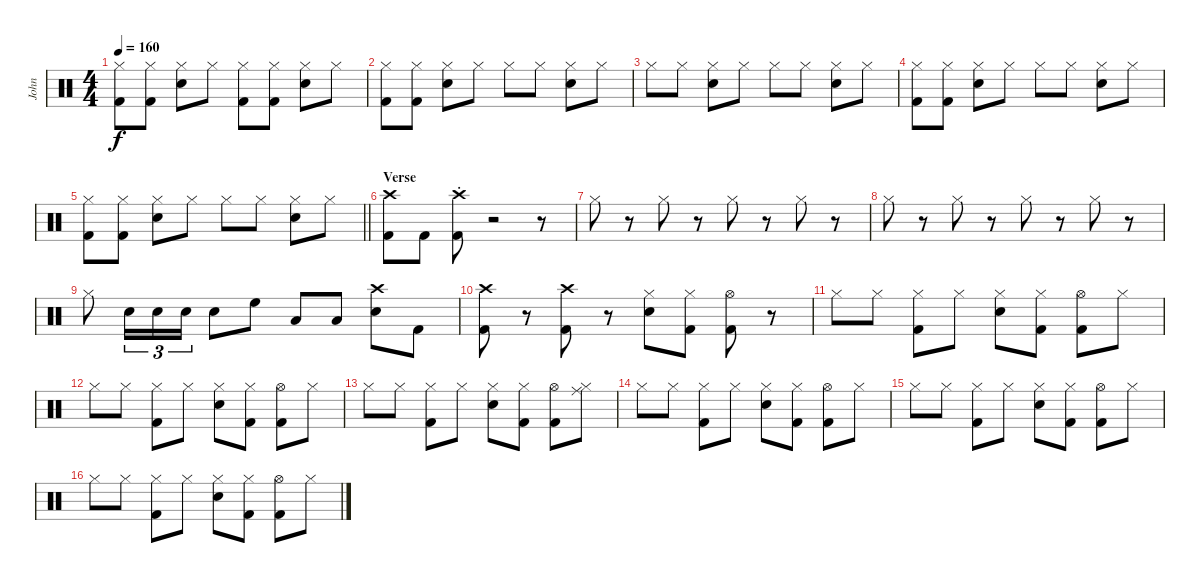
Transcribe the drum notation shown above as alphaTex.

\track ("John" "John") {instrument percussion}
\staff {score}
\articulation defaults
\ts (4 4)
\tempo 160
\clef neutral
\ks c
("Hi-Hat (closed)" "Kick (hit) 2").8{dy f} ("Hi-Hat (closed)" "Kick (hit) 2").8 ("Hi-Hat (closed)" "Snare (hit) 2").8 "Hi-Hat (closed)".8 ("Hi-Hat (closed)" "Kick (hit) 2").8 ("Hi-Hat (closed)" "Kick (hit) 2").8 ("Hi-Hat (closed)" "Snare (hit) 2").8 "Hi-Hat (closed)".8 |
("Hi-Hat (closed)" "Kick (hit) 2").8 ("Hi-Hat (closed)" "Kick (hit) 2").8 ("Hi-Hat (closed)" "Snare (hit) 2").8 "Hi-Hat (closed)".8 "Hi-Hat (closed)".8 "Hi-Hat (closed)".8 ("Hi-Hat (closed)" "Snare (hit) 2").8 "Hi-Hat (closed)".8 |
"Hi-Hat (closed)".8 "Hi-Hat (closed)".8 ("Hi-Hat (closed)" "Snare (hit) 2").8 "Hi-Hat (closed)".8 "Hi-Hat (closed)".8 "Hi-Hat (closed)".8 ("Hi-Hat (closed)" "Snare (hit) 2").8 "Hi-Hat (closed)".8 |
("Hi-Hat (closed)" "Kick (hit) 2").8 ("Hi-Hat (closed)" "Kick (hit) 2").8 ("Hi-Hat (closed)" "Snare (hit) 2").8 "Hi-Hat (closed)".8 "Hi-Hat (closed)".8 "Hi-Hat (closed)".8 ("Hi-Hat (closed)" "Snare (hit) 2").8 "Hi-Hat (closed)".8 |
\barLineRight lightlight
("Hi-Hat (closed)" "Kick (hit) 2").8 ("Hi-Hat (closed)" "Kick (hit) 2").8 ("Hi-Hat (closed)" "Snare (hit) 2").8 "Hi-Hat (closed)".8 "Hi-Hat (closed)".8 "Hi-Hat (closed)".8 ("Hi-Hat (closed)" "Snare (hit) 2").8 "Hi-Hat (closed)".8 |
\section ("" "Verse")
("Crash high (hit)" "Kick (hit) 2").8 "Kick (hit) 2".8 ("Crash high (hit)"{st} "Kick (hit) 2"{st}).8 r.2 r.8 |
"Hi-Hat (closed)".8 r.8 "Hi-Hat (closed)".8 r.8 "Hi-Hat (closed)".8 r.8 "Hi-Hat (closed)".8 r.8 |
"Hi-Hat (closed)".8 r.8 "Hi-Hat (closed)".8 r.8 "Hi-Hat (closed)".8 r.8 "Hi-Hat (closed)".8 r.8 |
"Hi-Hat (closed)".8 "Snare (hit) 2".16{tu (3 2)} "Snare (hit) 2".16{tu (3 2)} "Snare (hit) 2".16{tu (3 2)} "Snare (hit) 2".8 "High Floor Tom (hit)".8 "Low Tom (hit)".8 "Low Tom (hit)".8 ("Crash high (hit)" "Snare (hit) 2").8 "Kick (hit) 2".8 |
("Crash high (hit)" "Kick (hit) 2").8 r.8 ("Crash high (hit)" "Kick (hit) 2").8 r.8 ("Hi-Hat (closed)" "Snare (hit) 2").8 ("Hi-Hat (closed)" "Kick (hit) 2").8 ("Hi-Hat (open)" "Kick (hit) 2").8 r.8 |
"Hi-Hat (closed)".8 "Hi-Hat (closed)".8 ("Hi-Hat (closed)" "Kick (hit) 2").8 "Hi-Hat (closed)".8 ("Hi-Hat (closed)" "Snare (hit) 2").8 ("Hi-Hat (closed)" "Kick (hit) 2").8 ("Hi-Hat (open)" "Kick (hit) 2").8 "Hi-Hat (closed)".8 |
"Hi-Hat (closed)".8 "Hi-Hat (closed)".8 ("Hi-Hat (closed)" "Kick (hit) 2").8 "Hi-Hat (closed)".8 ("Hi-Hat (closed)" "Snare (hit) 2").8 ("Hi-Hat (closed)" "Kick (hit) 2").8 ("Hi-Hat (open)" "Kick (hit) 2").8 "Hi-Hat (closed)".8 |
"Hi-Hat (closed)".8 "Hi-Hat (closed)".8 ("Hi-Hat (closed)" "Kick (hit) 2").8 "Hi-Hat (closed)".8 ("Hi-Hat (closed)" "Snare (hit) 2").8 ("Hi-Hat (closed)" "Kick (hit) 2").8 ("Hi-Hat (open)" "Kick (hit) 2").8 ("Ride (middle)" "Hi-Hat (closed)").8 |
"Hi-Hat (closed)".8 "Hi-Hat (closed)".8 ("Hi-Hat (closed)" "Kick (hit) 2").8 "Hi-Hat (closed)".8 ("Hi-Hat (closed)" "Snare (hit) 2").8 ("Hi-Hat (closed)" "Kick (hit) 2").8 ("Hi-Hat (open)" "Kick (hit) 2").8 "Hi-Hat (closed)".8 |
"Hi-Hat (closed)".8 "Hi-Hat (closed)".8 ("Hi-Hat (closed)" "Kick (hit) 2").8 "Hi-Hat (closed)".8 ("Hi-Hat (closed)" "Snare (hit) 2").8 ("Hi-Hat (closed)" "Kick (hit) 2").8 ("Hi-Hat (open)" "Kick (hit) 2").8 "Hi-Hat (closed)".8 |
"Hi-Hat (closed)".8 "Hi-Hat (closed)".8 ("Hi-Hat (closed)" "Kick (hit) 2").8 "Hi-Hat (closed)".8 ("Hi-Hat (closed)" "Snare (hit) 2").8 ("Hi-Hat (closed)" "Kick (hit) 2").8 ("Hi-Hat (open)" "Kick (hit) 2").8 "Hi-Hat (closed)".8
